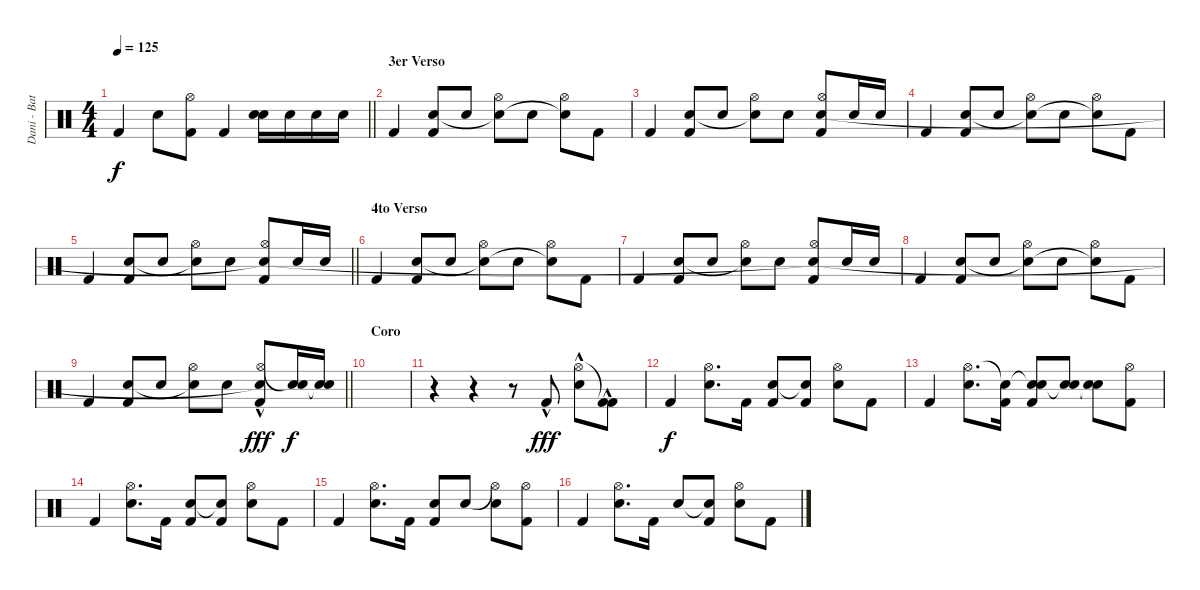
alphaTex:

\track ("Dani - Batería" "Dani - Bat") {instrument percussion}
\staff {score}
\articulation defaults
\ts (4 4)
\tempo 125
\clef neutral
\barLineRight lightlight
\ks c "Kick (hit) 2".4{dy f} "Electric Snare (hit)".8
("Hi-Hat (open)" "Kick (hit) 2").8 "Kick (hit) 2".4 ("Electric Snare (hit)" "Electric Snare (hit)").16 "Electric Snare (hit)".16 "Electric Snare (hit)".16 "Electric Snare (hit)".16 |
\section ("" "3er Verso")
"Kick (hit) 2".4 ("Kick (hit) 2" "Electric Snare (hit)").8 "Electric Snare (hit)".8 ("Hi-Hat (open)" "Snare (hit)"{t}).8 "Electric Snare (hit)".8 ("Hi-Hat (open)" "Snare (hit)"{t}).8 "Kick (hit) 2".8 |
"Kick (hit) 2".4 ("Kick (hit) 2" "Electric Snare (hit)").8 "Electric Snare (hit)".8 ("Hi-Hat (open)" "Snare (hit)"{t}).8 "Electric Snare (hit)".8 ("Hi-Hat (open)" "Kick (hit) 2" "Snare (hit)").8 "Electric Snare (hit)".16 "Electric Snare (hit)".16 |
"Kick (hit) 2".4 ("Kick (hit) 2" "Electric Snare (hit)").8 "Electric Snare (hit)".8 ("Hi-Hat (open)" "Snare (hit)"{t}).8 "Electric Snare (hit)".8 ("Hi-Hat (open)" "Snare (hit)"{t}).8 "Kick (hit) 2".8 |
\barLineRight lightlight "Kick (hit) 2".4
("Kick (hit) 2" "Electric Snare (hit)").8 "Electric Snare (hit)".8 ("Hi-Hat (open)" "Snare (hit)"{t}).8 "Electric Snare (hit)".8 ("Hi-Hat (open)" "Kick (hit) 2" "Snare (hit)"{t}).8 "Electric Snare (hit)".16 "Electric Snare (hit)".16 |
\section ("" "4to Verso")
"Kick (hit) 2".4 ("Kick (hit) 2" "Electric Snare (hit)").8 "Electric Snare (hit)".8 ("Hi-Hat (open)" "Snare (hit)"{t}).8 "Electric Snare (hit)".8 ("Hi-Hat (open)" "Snare (hit)"{t}).8 "Kick (hit) 2".8 |
"Kick (hit) 2".4 ("Kick (hit) 2" "Electric Snare (hit)").8 "Electric Snare (hit)".8 ("Hi-Hat (open)" "Snare (hit)"{t}).8 "Electric Snare (hit)".8 ("Hi-Hat (open)" "Kick (hit) 2" "Snare (hit)"{t}).8 "Electric Snare (hit)".16 "Electric Snare (hit)".16 |
"Kick (hit) 2".4 ("Kick (hit) 2" "Electric Snare (hit)").8 "Electric Snare (hit)".8 ("Hi-Hat (open)" "Snare (hit)"{t}).8 "Electric Snare (hit)".8 ("Hi-Hat (open)" "Snare (hit)"{t}).8 "Kick (hit) 2".8 |
\barLineRight lightlight "Kick (hit) 2".4
("Kick (hit) 2" "Electric Snare (hit)").8 "Electric Snare (hit)".8 ("Hi-Hat (open)" "Snare (hit)"{t}).8 "Electric Snare (hit)".8 ("Hi-Hat (open)"{hac} "Kick (hit) 2" "Snare (hit)"{t}).8{dy fff} ("Snare (hit)"{t} "Electric Snare (hit)").16{dy f} ("Snare (hit)"{t} "Electric Snare (hit)").16 |
\section ("" "Coro")
|
r.4 r.4 r.8 "Kick (hit) 2"{hac}.8{dy fff} ("Hi-Hat (open)"{hac} "Electric Snare (hit)"{hac}).8 ("Kick (hit) 2"{t} "Kick (hit) 2"{hac}).8 |
"Kick (hit) 2".4{dy f} ("Hi-Hat (open)" "Electric Snare (hit)").8{d} "Kick (hit) 2".16 ("Electric Snare (hit)" "Kick (hit) 2").8 ("Snare (hit)"{t} "Kick (hit) 2").8 ("Hi-Hat (open)" "Electric Snare (hit)").8 "Kick (hit) 2".8 |
"Kick (hit) 2".4 ("Hi-Hat (open)" "Electric Snare (hit)").8{d} ("Snare (hit)"{t} "Kick (hit) 2").16 ("Snare (hit)"{t} "Electric Snare (hit)" "Kick (hit) 2").8 ("Snare (hit)"{t} "Electric Snare (hit)").8 ("Snare (hit)"{t} "Electric Snare (hit)").8 ("Hi-Hat (open)" "Kick (hit) 2").8 |
"Kick (hit) 2".4 ("Hi-Hat (open)" "Electric Snare (hit)").8{d} "Kick (hit) 2".16 ("Electric Snare (hit)" "Kick (hit) 2").8 ("Snare (hit)"{t} "Kick (hit) 2").8 ("Hi-Hat (open)" "Electric Snare (hit)").8 "Kick (hit) 2".8 |
"Kick (hit) 2".4 ("Hi-Hat (open)" "Electric Snare (hit)").8{d} "Kick (hit) 2".16 ("Electric Snare (hit)" "Kick (hit) 2").8 "Electric Snare (hit)".8 ("Hi-Hat (open)"{t} "Electric Snare (hit)").8 ("Hi-Hat (open)" "Kick (hit) 2").8 |
"Kick (hit) 2".4 ("Hi-Hat (open)" "Electric Snare (hit)").8{d} "Kick (hit) 2".16 "Electric Snare (hit)".8 ("Snare (hit)"{t} "Kick (hit) 2").8 ("Hi-Hat (open)" "Electric Snare (hit)").8 "Kick (hit) 2".8
